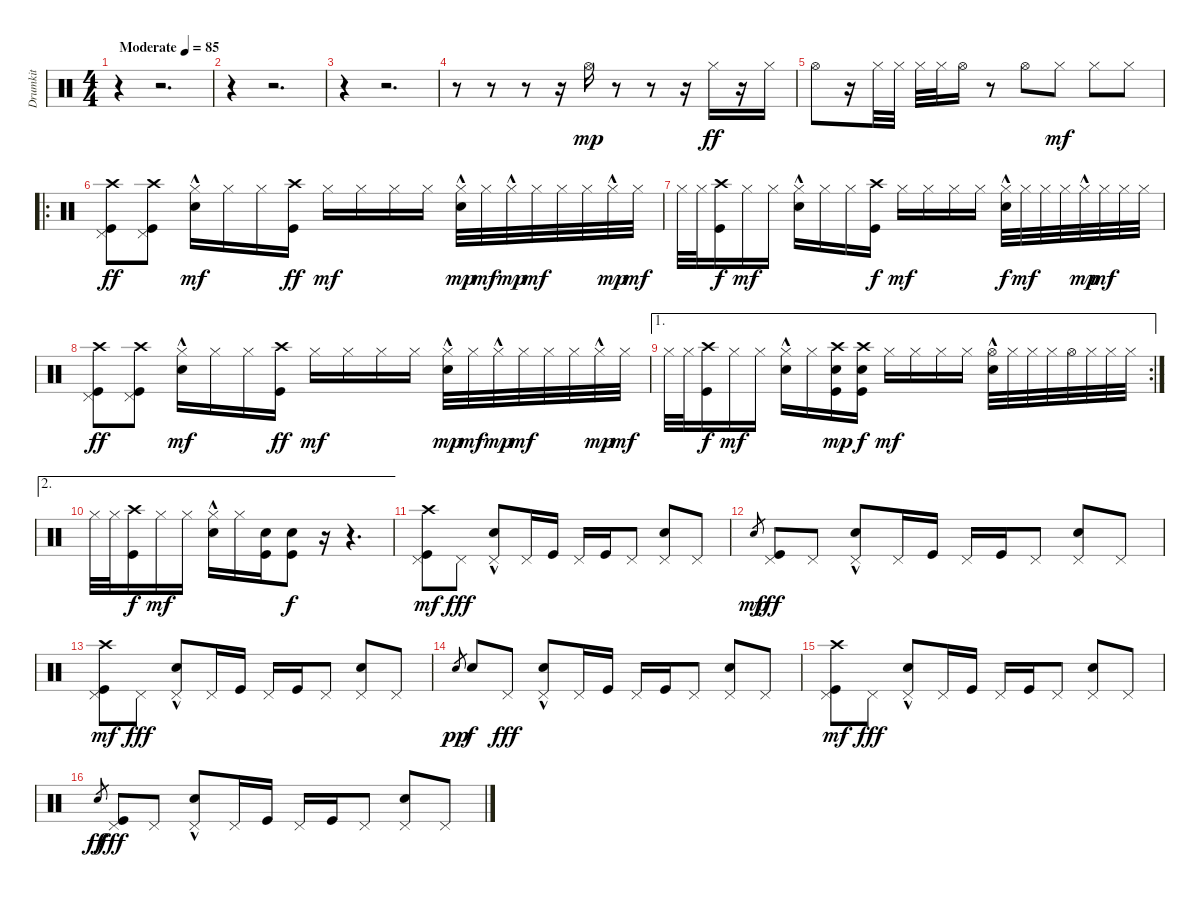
\track ("Drumkit" "Drumkit") {instrument percussion}
\staff {score}
\articulation defaults
\ts (4 4)
\tempo (85 "Moderate")
\clef neutral
\ks c
r.4{dy mp} r.2{d} |
r.4 r.2{d} |
r.4 r.2{d} |
r.8 r.8 r.8 r.16 "Hi-Hat (open)".16 r.8 r.8 r.16 "Hi-Hat (closed)".16{dy ff} r.16 "Hi-Hat (closed)".16 |
"Hi-Hat (open)".8 r.16 "Hi-Hat (closed)".32 "Hi-Hat (closed)".32 "Hi-Hat (closed)".32 "Hi-Hat (closed)".32 "Hi-Hat (open)".16 r.8 "Hi-Hat (open)".8 "Hi-Hat (closed)".8{dy mf} "Hi-Hat (closed)".8 "Hi-Hat (closed)".8 |
\ro
("Kick (hit)" "Pedal Hi-Hat (hit)" "Crash high (hit)").8{dy ff} ("Kick (hit)" "Pedal Hi-Hat (hit)" "Crash high (hit)").8 ("Snare (hit) 2"{hac} "Hi-Hat (closed)").16{dy mf} "Hi-Hat (closed)".16 "Hi-Hat (closed)".16 ("Kick (hit)" "Crash high (hit)").16{dy ff} "Hi-Hat (closed)".16{dy mf} "Hi-Hat (closed)".16 "Hi-Hat (closed)".16 "Hi-Hat (closed)".16 ("Hi-Hat (closed)" "Snare (hit) 2"{hac}).32{dy mp} "Hi-Hat (closed)".32{dy mf} "Hi-Hat (closed)"{hac}.32{dy mp} "Hi-Hat (closed)".32{dy mf} "Hi-Hat (closed)".32 "Hi-Hat (closed)".32 "Hi-Hat (closed)"{hac}.32{dy mp} "Hi-Hat (closed)".32{dy mf} |
"Hi-Hat (closed)".32 "Hi-Hat (closed)".32 ("Kick (hit)" "Crash high (hit)").16{dy f} "Hi-Hat (closed)".16{dy mf} "Hi-Hat (closed)".16 ("Snare (hit) 2"{hac} "Hi-Hat (closed)").16 "Hi-Hat (closed)".16 "Hi-Hat (closed)".16 ("Kick (hit)" "Crash high (hit)").16{dy f} "Hi-Hat (closed)".16{dy mf} "Hi-Hat (closed)".16 "Hi-Hat (closed)".16 "Hi-Hat (closed)".16 ("Snare (hit) 2"{hac} "Hi-Hat (closed)"{hac}).32{dy f} "Hi-Hat (closed)".32{dy mf} "Hi-Hat (closed)".32 "Hi-Hat (closed)".32 "Hi-Hat (closed)"{hac}.32{dy mp} "Hi-Hat (closed)".32{dy mf} "Hi-Hat (closed)".32 "Hi-Hat (closed)".32 |
("Kick (hit)" "Pedal Hi-Hat (hit)" "Crash high (hit)").8{dy ff} ("Kick (hit)" "Pedal Hi-Hat (hit)" "Crash high (hit)").8 ("Snare (hit) 2"{hac} "Hi-Hat (closed)").16{dy mf} "Hi-Hat (closed)".16 "Hi-Hat (closed)".16 ("Kick (hit)" "Crash high (hit)").16{dy ff} "Hi-Hat (closed)".16{dy mf} "Hi-Hat (closed)".16 "Hi-Hat (closed)".16 "Hi-Hat (closed)".16 ("Hi-Hat (closed)" "Snare (hit) 2"{hac}).32{dy mp} "Hi-Hat (closed)".32{dy mf} "Hi-Hat (closed)"{hac}.32{dy mp} "Hi-Hat (closed)".32{dy mf} "Hi-Hat (closed)".32 "Hi-Hat (closed)".32 "Hi-Hat (closed)"{hac}.32{dy mp} "Hi-Hat (closed)".32{dy mf} |
\ae 1
\rc 2 "Hi-Hat (closed)".32 "Hi-Hat (closed)".32
("Kick (hit)" "Crash high (hit)").16{dy f} "Hi-Hat (closed)".16{dy mf} "Hi-Hat (closed)".16 ("Snare (hit) 2"{hac} "Hi-Hat (closed)").16 "Hi-Hat (closed)".16 ("Crash high (hit)" "Snare (hit) 2" "Kick (hit)").16{dy mp} ("Kick (hit)" "Snare (hit) 2" "Crash high (hit)").16{dy f} "Hi-Hat (closed)".16{dy mf} "Hi-Hat (closed)".16 "Hi-Hat (closed)".16 "Hi-Hat (closed)".16 ("Snare (hit) 2"{hac} "Hi-Hat (open)").32 "Hi-Hat (closed)".32 "Hi-Hat (closed)".32 "Hi-Hat (closed)".32 "Hi-Hat (open)".32 "Hi-Hat (closed)".32 "Hi-Hat (closed)".32 "Hi-Hat (closed)".32 |
\ae 2 "Hi-Hat (closed)".32 "Hi-Hat (closed)".32
("Kick (hit)" "Crash high (hit)").16{dy f} "Hi-Hat (closed)".16{dy mf} "Hi-Hat (closed)".16 ("Snare (hit) 2"{hac} "Hi-Hat (closed)").16 "Hi-Hat (closed)".16 ("Snare (hit) 2" "Kick (hit)").16 ("Kick (hit)" "Snare (hit) 2").8{dy f} r.16 r.4{d} |
("Kick (hit)" "Pedal Hi-Hat (hit)" "Crash high (hit)").8{dy mf} "Pedal Hi-Hat (hit)".8{dy fff} ("Pedal Hi-Hat (hit)" "Snare (hit) 2"{hac}).8 "Pedal Hi-Hat (hit)".16 "Kick (hit)".16 "Pedal Hi-Hat (hit)".16 "Kick (hit)".16 "Pedal Hi-Hat (hit)".8 ("Snare (hit) 2" "Pedal Hi-Hat (hit)").8 "Pedal Hi-Hat (hit)".8 |
"Snare (hit)".8{gr dy mp} ("Kick (hit)" "Pedal Hi-Hat (hit)").8{dy fff} "Pedal Hi-Hat (hit)".8 ("Pedal Hi-Hat (hit)" "Snare (hit) 2"{hac}).8 "Pedal Hi-Hat (hit)".16 "Kick (hit)".16 "Pedal Hi-Hat (hit)".16 "Kick (hit)".16 "Pedal Hi-Hat (hit)".8 ("Snare (hit) 2" "Pedal Hi-Hat (hit)").8 "Pedal Hi-Hat (hit)".8 |
("Kick (hit)" "Pedal Hi-Hat (hit)" "Crash high (hit)").8{dy mf} "Pedal Hi-Hat (hit)".8{dy fff} ("Pedal Hi-Hat (hit)" "Snare (hit) 2"{hac}).8 "Pedal Hi-Hat (hit)".16 "Kick (hit)".16 "Pedal Hi-Hat (hit)".16 "Kick (hit)".16 "Pedal Hi-Hat (hit)".8 ("Snare (hit) 2" "Pedal Hi-Hat (hit)").8 "Pedal Hi-Hat (hit)".8 |
"Snare (hit)".8{gr dy pp} "Snare (hit) 2".8{dy f} "Pedal Hi-Hat (hit)".8{dy fff} ("Pedal Hi-Hat (hit)" "Snare (hit) 2"{hac}).8 "Pedal Hi-Hat (hit)".16 "Kick (hit)".16 "Pedal Hi-Hat (hit)".16 "Kick (hit)".16 "Pedal Hi-Hat (hit)".8 ("Snare (hit) 2" "Pedal Hi-Hat (hit)").8 "Pedal Hi-Hat (hit)".8 |
("Kick (hit)" "Pedal Hi-Hat (hit)" "Crash high (hit)").8{dy mf} "Pedal Hi-Hat (hit)".8{dy fff} ("Pedal Hi-Hat (hit)" "Snare (hit) 2"{hac}).8 "Pedal Hi-Hat (hit)".16 "Kick (hit)".16 "Pedal Hi-Hat (hit)".16 "Kick (hit)".16 "Pedal Hi-Hat (hit)".8 ("Snare (hit) 2" "Pedal Hi-Hat (hit)").8 "Pedal Hi-Hat (hit)".8 |
"Snare (hit)".8{gr dy ff} ("Kick (hit)" "Pedal Hi-Hat (hit)").8{dy fff} "Pedal Hi-Hat (hit)".8 ("Pedal Hi-Hat (hit)" "Snare (hit) 2"{hac}).8 "Pedal Hi-Hat (hit)".16 "Kick (hit)".16 "Pedal Hi-Hat (hit)".16 "Kick (hit)".16 "Pedal Hi-Hat (hit)".8 ("Snare (hit) 2" "Pedal Hi-Hat (hit)").8 "Pedal Hi-Hat (hit)".8
